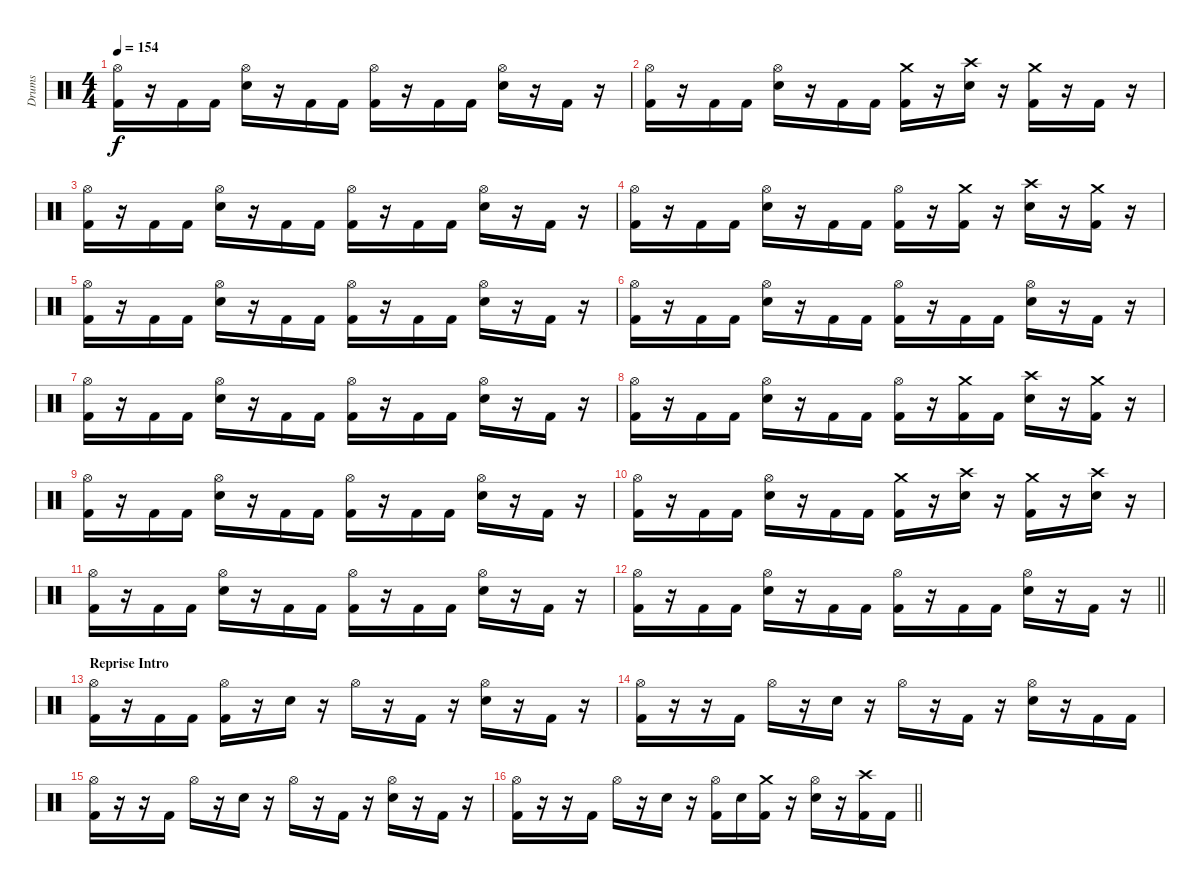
\track ("Drums" "Drums") {instrument percussion}
\staff {score}
\articulation defaults
\ts (4 4)
\tempo 154
\clef neutral
\ks c
("Hi-Hat (open)" "Kick (hit) 2").16{dy f} r.16 "Kick (hit) 2".16 "Kick (hit) 2".16 ("Hi-Hat (open)" "Snare (hit) 2").16 r.16 "Kick (hit) 2".16 "Kick (hit) 2".16 ("Hi-Hat (open)" "Kick (hit) 2").16 r.16 "Kick (hit) 2".16 "Kick (hit) 2".16 ("Hi-Hat (open)" "Snare (hit) 2").16 r.16 "Kick (hit) 2".16 r.16 |
("Hi-Hat (open)" "Kick (hit) 2").16 r.16 "Kick (hit) 2".16 "Kick (hit) 2".16 ("Hi-Hat (open)" "Snare (hit) 2").16 r.16 "Kick (hit) 2".16 "Kick (hit) 2".16 ("Crash medium (hit)" "Kick (hit) 2").16 r.16 ("Crash high (hit)" "Snare (hit) 2").16 r.16 ("Crash medium (hit)" "Kick (hit) 2").16 r.16 "Kick (hit) 2".16 r.16 |
("Hi-Hat (open)" "Kick (hit) 2").16 r.16 "Kick (hit) 2".16 "Kick (hit) 2".16 ("Hi-Hat (open)" "Snare (hit) 2").16 r.16 "Kick (hit) 2".16 "Kick (hit) 2".16 ("Hi-Hat (open)" "Kick (hit) 2").16 r.16 "Kick (hit) 2".16 "Kick (hit) 2".16 ("Hi-Hat (open)" "Snare (hit) 2").16 r.16 "Kick (hit) 2".16 r.16 |
("Hi-Hat (open)" "Kick (hit) 2").16 r.16 "Kick (hit) 2".16 "Kick (hit) 2".16 ("Hi-Hat (open)" "Snare (hit) 2").16 r.16 "Kick (hit) 2".16 "Kick (hit) 2".16 ("Hi-Hat (open)" "Kick (hit) 2").16 r.16 ("Crash medium (hit)" "Kick (hit) 2").16 r.16 ("Crash high (hit)" "Snare (hit) 2").16 r.16 ("Crash medium (hit)" "Kick (hit) 2").16 r.16 |
("Hi-Hat (open)" "Kick (hit) 2").16 r.16 "Kick (hit) 2".16 "Kick (hit) 2".16 ("Hi-Hat (open)" "Snare (hit) 2").16 r.16 "Kick (hit) 2".16 "Kick (hit) 2".16 ("Hi-Hat (open)" "Kick (hit) 2").16 r.16 "Kick (hit) 2".16 "Kick (hit) 2".16 ("Hi-Hat (open)" "Snare (hit) 2").16 r.16 "Kick (hit) 2".16 r.16 |
("Hi-Hat (open)" "Kick (hit) 2").16 r.16 "Kick (hit) 2".16 "Kick (hit) 2".16 ("Hi-Hat (open)" "Snare (hit) 2").16 r.16 "Kick (hit) 2".16 "Kick (hit) 2".16 ("Hi-Hat (open)" "Kick (hit) 2").16 r.16 "Kick (hit) 2".16 "Kick (hit) 2".16 ("Hi-Hat (open)" "Snare (hit) 2").16 r.16 "Kick (hit) 2".16 r.16 |
("Hi-Hat (open)" "Kick (hit) 2").16 r.16 "Kick (hit) 2".16 "Kick (hit) 2".16 ("Hi-Hat (open)" "Snare (hit) 2").16 r.16 "Kick (hit) 2".16 "Kick (hit) 2".16 ("Hi-Hat (open)" "Kick (hit) 2").16 r.16 "Kick (hit) 2".16 "Kick (hit) 2".16 ("Hi-Hat (open)" "Snare (hit) 2").16 r.16 "Kick (hit) 2".16 r.16 |
("Hi-Hat (open)" "Kick (hit) 2").16 r.16 "Kick (hit) 2".16 "Kick (hit) 2".16 ("Hi-Hat (open)" "Snare (hit) 2").16 r.16 "Kick (hit) 2".16 "Kick (hit) 2".16 ("Hi-Hat (open)" "Kick (hit) 2").16 r.16 ("Crash medium (hit)" "Kick (hit) 2").16 "Kick (hit) 2".16 ("Crash high (hit)" "Snare (hit) 2").16 r.16 ("Crash medium (hit)" "Kick (hit) 2").16 r.16 |
("Hi-Hat (open)" "Kick (hit) 2").16 r.16 "Kick (hit) 2".16 "Kick (hit) 2".16 ("Hi-Hat (open)" "Snare (hit) 2").16 r.16 "Kick (hit) 2".16 "Kick (hit) 2".16 ("Hi-Hat (open)" "Kick (hit) 2").16 r.16 "Kick (hit) 2".16 "Kick (hit) 2".16 ("Hi-Hat (open)" "Snare (hit) 2").16 r.16 "Kick (hit) 2".16 r.16 |
("Hi-Hat (open)" "Kick (hit) 2").16 r.16 "Kick (hit) 2".16 "Kick (hit) 2".16 ("Hi-Hat (open)" "Snare (hit) 2").16 r.16 "Kick (hit) 2".16 "Kick (hit) 2".16 ("Crash medium (hit)" "Kick (hit) 2").16 r.16 ("Crash high (hit)" "Snare (hit) 2").16 r.16 ("Crash medium (hit)" "Kick (hit) 2").16 r.16 ("Crash high (hit)" "Snare (hit) 2").16 r.16 |
("Hi-Hat (open)" "Kick (hit) 2").16 r.16 "Kick (hit) 2".16 "Kick (hit) 2".16 ("Hi-Hat (open)" "Snare (hit) 2").16 r.16 "Kick (hit) 2".16 "Kick (hit) 2".16 ("Hi-Hat (open)" "Kick (hit) 2").16 r.16 "Kick (hit) 2".16 "Kick (hit) 2".16 ("Hi-Hat (open)" "Snare (hit) 2").16 r.16 "Kick (hit) 2".16 r.16 |
\barLineRight lightlight
("Hi-Hat (open)" "Kick (hit) 2").16 r.16 "Kick (hit) 2".16 "Kick (hit) 2".16 ("Hi-Hat (open)" "Snare (hit) 2").16 r.16 "Kick (hit) 2".16 "Kick (hit) 2".16 ("Hi-Hat (open)" "Kick (hit) 2").16 r.16 "Kick (hit) 2".16 "Kick (hit) 2".16 ("Hi-Hat (open)" "Snare (hit) 2").16 r.16 "Kick (hit) 2".16 r.16 |
\section ("" "Reprise Intro")
("Hi-Hat (open)" "Kick (hit) 2").16 r.16 "Kick (hit) 2".16 "Kick (hit) 2".16 ("Hi-Hat (open)" "Kick (hit) 2").16 r.16 "Snare (hit) 2".16 r.16 "Hi-Hat (open)".16 r.16 "Kick (hit) 2".16 r.16 ("Hi-Hat (open)" "Snare (hit) 2").16 r.16 "Kick (hit) 2".16 r.16 |
("Hi-Hat (open)" "Kick (hit) 2").16 r.16 r.16 "Kick (hit) 2".16 "Hi-Hat (open)".16 r.16 "Snare (hit) 2".16 r.16 "Hi-Hat (open)".16 r.16 "Kick (hit) 2".16 r.16 ("Hi-Hat (open)" "Snare (hit) 2").16 r.16 "Kick (hit) 2".16 "Kick (hit) 2".16 |
("Hi-Hat (open)" "Kick (hit) 2").16 r.16 r.16 "Kick (hit) 2".16 "Hi-Hat (open)".16 r.16 "Snare (hit) 2".16 r.16 "Hi-Hat (open)".16 r.16 "Kick (hit) 2".16 r.16 ("Hi-Hat (open)" "Snare (hit) 2").16 r.16 "Kick (hit) 2".16 r.16 |
\barLineRight lightlight
("Hi-Hat (open)" "Kick (hit) 2").16 r.16 r.16 "Kick (hit) 2".16 "Hi-Hat (open)".16 r.16 "Snare (hit) 2".16 r.16 ("Hi-Hat (open)" "Kick (hit) 2").16 "Snare (hit) 2".16 ("Crash medium (hit)" "Kick (hit) 2").16 r.16 ("Hi-Hat (open)" "Snare (hit) 2").16 r.16 ("Crash high (hit)" "Kick (hit) 2").16 "Kick (hit) 2".16
